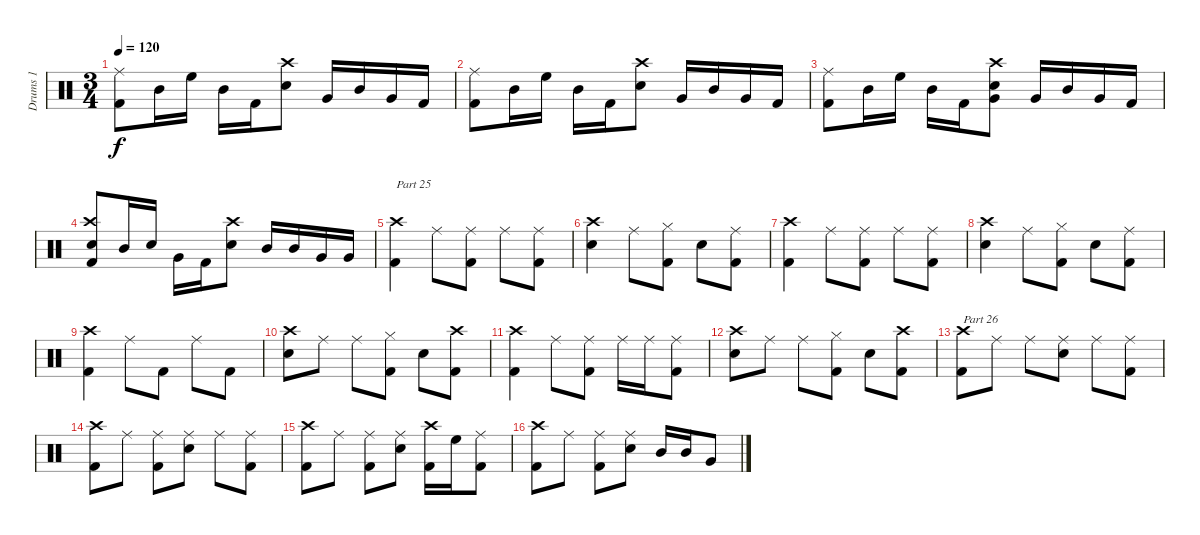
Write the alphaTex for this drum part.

\track ("Drums 1" "Drums 1") {instrument percussion}
\staff {score}
\articulation defaults
\ts (3 4)
\tempo 120
\clef neutral
\ks c
("Ride (middle)" "Kick (hit) 2").8{dy f} "Mid Tom (hit)".16 "High Floor Tom (hit)".16 "Mid Tom (hit)".16 "Kick (hit) 2".16 ("Crash high (hit)" "Snare (hit) 2").8 "Very Low Tom (hit)".16 "Mid Tom (hit)".16 "Very Low Tom (hit)".16 "Kick (hit) 2".16 |
("Ride (middle)" "Kick (hit) 2").8 "Mid Tom (hit)".16 "High Floor Tom (hit)".16 "Mid Tom (hit)".16 "Kick (hit) 2".16 ("Crash high (hit)" "Snare (hit) 2").8 "Very Low Tom (hit)".16 "Mid Tom (hit)".16 "Very Low Tom (hit)".16 "Kick (hit) 2".16 |
("Ride (middle)" "Kick (hit) 2").8 "Mid Tom (hit)".16 "High Floor Tom (hit)".16 "Mid Tom (hit)".16 "Kick (hit) 2".16 ("Crash high (hit)" "Snare (hit) 2" "Very Low Tom (hit)").8 "Very Low Tom (hit)".16 "Mid Tom (hit)".16 "Very Low Tom (hit)".16 "Kick (hit) 2".16 |
("Crash high (hit)" "Snare (hit) 2" "Kick (hit) 2").8 "Mid Tom (hit)".16 "Snare (hit) 2".16 "Very Low Tom (hit)".16 "Kick (hit) 2".16 ("Crash high (hit)" "Snare (hit) 2").8 "Mid Tom (hit)".16 "Mid Tom (hit)".16 "Very Low Tom (hit)".16 "Very Low Tom (hit)".16 |
("Crash high (hit)" "Kick (hit) 2").4{txt "Part 25"} "Ride (middle)".8 ("Ride (middle)" "Kick (hit) 2").8 "Ride (middle)".8 ("Ride (middle)" "Kick (hit) 2").8 |
("Crash high (hit)" "Snare (hit) 2").4 "Ride (middle)".8 ("Hi-Hat (closed)" "Kick (hit) 2").8 "Snare (hit) 2".8 ("Ride (middle)" "Kick (hit) 2").8 |
("Crash high (hit)" "Kick (hit) 2").4 "Ride (middle)".8 ("Ride (middle)" "Kick (hit) 2").8 "Ride (middle)".8 ("Ride (middle)" "Kick (hit) 2").8 |
("Crash high (hit)" "Snare (hit) 2").4 "Ride (middle)".8 ("Hi-Hat (closed)" "Kick (hit) 2").8 "Snare (hit) 2".8 ("Ride (middle)" "Kick (hit) 2").8 |
("Crash high (hit)" "Kick (hit) 2").4 "Ride (middle)".8 "Kick (hit) 2".8 "Ride (middle)".8 "Kick (hit) 2".8 |
("Crash high (hit)" "Snare (hit) 2").8 "Ride (middle)".8 "Ride (middle)".8 ("Hi-Hat (closed)" "Kick (hit) 2").8 "Snare (hit) 2".8 ("Crash high (hit)" "Kick (hit) 2").8 |
("Crash high (hit)" "Kick (hit) 2").4 "Ride (middle)".8 ("Ride (middle)" "Kick (hit) 2").8 "Ride (middle)".16 "Ride (middle)".16 ("Ride (middle)" "Kick (hit) 2").8 |
("Crash high (hit)" "Snare (hit) 2").8 "Ride (middle)".8 "Ride (middle)".8 ("Hi-Hat (closed)" "Kick (hit) 2").8 "Snare (hit) 2".8 ("Crash high (hit)" "Kick (hit) 2").8 |
("Crash high (hit)" "Kick (hit) 2").8{txt "Part 26"} "Ride (middle)".8 "Ride (middle)".8 ("Ride (middle)" "Snare (hit) 2").8 "Ride (middle)".8 ("Ride (middle)" "Kick (hit) 2").8 |
("Crash high (hit)" "Kick (hit) 2").8 "Ride (middle)".8 ("Ride (middle)" "Kick (hit) 2").8 ("Ride (middle)" "Snare (hit) 2").8 "Ride (middle)".8 ("Ride (middle)" "Kick (hit) 2").8 |
("Crash high (hit)" "Kick (hit) 2").8 "Ride (middle)".8 ("Ride (middle)" "Kick (hit) 2").8 ("Ride (middle)" "Snare (hit) 2").8 ("Crash high (hit)" "Kick (hit) 2").16 "High Floor Tom (hit)".16 ("Ride (middle)" "Kick (hit) 2").8 |
("Crash high (hit)" "Kick (hit) 2").8 "Ride (middle)".8 ("Ride (middle)" "Kick (hit) 2").8 ("Ride (middle)" "Snare (hit) 2").8 "Mid Tom (hit)".16 "Mid Tom (hit)".16 "Very Low Tom (hit)".8
